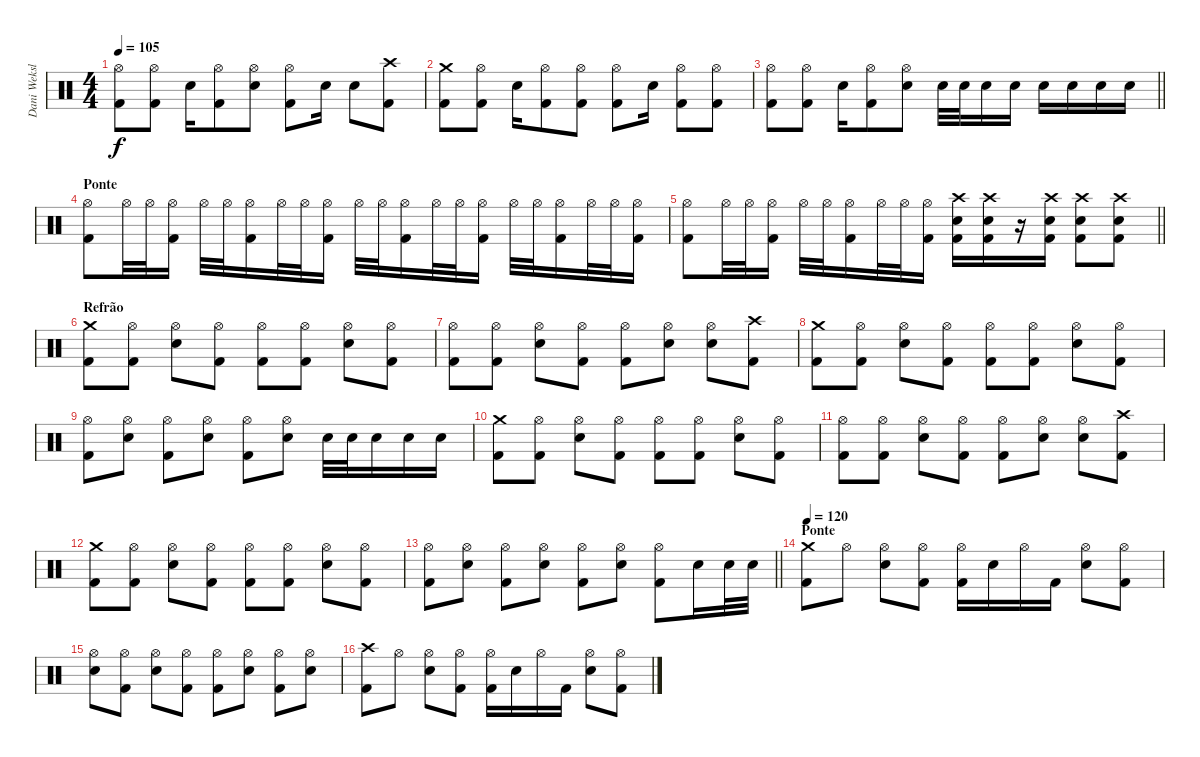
\track ("Dani Weksler" "Dani Weksl") {instrument percussion}
\staff {score}
\articulation defaults
\ts (4 4)
\tempo 105
\clef neutral
\ks c
("Hi-Hat (open)" "Kick (hit) 2").8{dy f} ("Hi-Hat (open)" "Kick (hit) 2").8 "Electric Snare (hit)".16 ("Hi-Hat (open)" "Kick (hit) 2").8 ("Hi-Hat (open)" "Electric Snare (hit)").8 ("Hi-Hat (open)" "Kick (hit) 2").8 "Electric Snare (hit)".16 "Electric Snare (hit)".8 ("Crash high (hit)" "Kick (hit) 2").8 |
("Crash medium (hit)" "Kick (hit) 2").8 ("Hi-Hat (open)" "Kick (hit) 2").8 "Electric Snare (hit)".16 ("Hi-Hat (open)" "Kick (hit) 2").8 ("Hi-Hat (open)" "Kick (hit) 2").8 ("Hi-Hat (open)" "Kick (hit) 2").8 "Electric Snare (hit)".16 ("Hi-Hat (open)" "Kick (hit) 2").8 ("Hi-Hat (open)" "Kick (hit) 2").8 |
\barLineRight lightlight
("Hi-Hat (open)" "Kick (hit) 2").8 ("Hi-Hat (open)" "Kick (hit) 2").8 "Electric Snare (hit)".16 ("Hi-Hat (open)" "Kick (hit) 2").8 ("Hi-Hat (open)" "Electric Snare (hit)").8 "Electric Snare (hit)".32 "Electric Snare (hit)".32 "Electric Snare (hit)".16 "Electric Snare (hit)".16 "Electric Snare (hit)".16 "Electric Snare (hit)".16 "Electric Snare (hit)".16 "Electric Snare (hit)".16 |
\section ("" "Ponte")
("Hi-Hat (open)" "Kick (hit) 2").8 "Hi-Hat (open)".32 "Hi-Hat (open)".32 ("Hi-Hat (open)" "Kick (hit) 2").16 "Hi-Hat (open)".32 "Hi-Hat (open)".32 ("Hi-Hat (open)" "Kick (hit) 2").16 "Hi-Hat (open)".32 "Hi-Hat (open)".32 ("Hi-Hat (open)" "Kick (hit) 2").16 "Hi-Hat (open)".32 "Hi-Hat (open)".32 ("Hi-Hat (open)" "Kick (hit) 2").16 "Hi-Hat (open)".32 "Hi-Hat (open)".32 ("Hi-Hat (open)" "Kick (hit) 2").16 "Hi-Hat (open)".32 "Hi-Hat (open)".32 ("Hi-Hat (open)" "Kick (hit) 2").16 "Hi-Hat (open)".32 "Hi-Hat (open)".32 ("Hi-Hat (open)" "Kick (hit) 2").16 |
\barLineRight lightlight
("Hi-Hat (open)" "Kick (hit) 2").8 "Hi-Hat (open)".32 "Hi-Hat (open)".32 ("Hi-Hat (open)" "Kick (hit) 2").16 "Hi-Hat (open)".32 "Hi-Hat (open)".32 ("Hi-Hat (open)" "Kick (hit) 2").16 "Hi-Hat (open)".32 "Hi-Hat (open)".32 ("Hi-Hat (open)" "Kick (hit) 2").16 ("Crash high (hit)" "Electric Snare (hit)" "Kick (hit) 2").16 ("Crash high (hit)" "Electric Snare (hit)" "Kick (hit) 2").16 r.16 ("Crash high (hit)" "Electric Snare (hit)" "Kick (hit) 2").16 ("Crash high (hit)" "Electric Snare (hit)" "Kick (hit) 2").8 ("Crash high (hit)" "Electric Snare (hit)" "Kick (hit) 2").8 |
\section ("" "Refrão")
("Crash medium (hit)" "Kick (hit) 2").8 ("Hi-Hat (open)" "Kick (hit) 2").8 ("Hi-Hat (open)" "Electric Snare (hit)").8 ("Hi-Hat (open)" "Kick (hit) 2").8 ("Hi-Hat (open)" "Kick (hit) 2").8 ("Hi-Hat (open)" "Kick (hit) 2").8 ("Hi-Hat (open)" "Electric Snare (hit)").8 ("Hi-Hat (open)" "Kick (hit) 2").8 |
("Hi-Hat (open)" "Kick (hit) 2").8 ("Hi-Hat (open)" "Kick (hit) 2").8 ("Hi-Hat (open)" "Electric Snare (hit)").8 ("Hi-Hat (open)" "Kick (hit) 2").8 ("Hi-Hat (open)" "Kick (hit) 2").8 ("Hi-Hat (open)" "Electric Snare (hit)").8 ("Hi-Hat (open)" "Electric Snare (hit)").8 ("Crash high (hit)" "Kick (hit) 2").8 |
("Crash medium (hit)" "Kick (hit) 2").8 ("Hi-Hat (open)" "Kick (hit) 2").8 ("Hi-Hat (open)" "Electric Snare (hit)").8 ("Hi-Hat (open)" "Kick (hit) 2").8 ("Hi-Hat (open)" "Kick (hit) 2").8 ("Hi-Hat (open)" "Kick (hit) 2").8 ("Hi-Hat (open)" "Electric Snare (hit)").8 ("Hi-Hat (open)" "Kick (hit) 2").8 |
("Hi-Hat (open)" "Kick (hit) 2").8 ("Hi-Hat (open)" "Electric Snare (hit)").8 ("Hi-Hat (open)" "Kick (hit) 2").8 ("Hi-Hat (open)" "Electric Snare (hit)").8 ("Hi-Hat (open)" "Kick (hit) 2").8 ("Hi-Hat (open)" "Electric Snare (hit)").8 "Electric Snare (hit)".32 "Electric Snare (hit)".32 "Electric Snare (hit)".16 "Electric Snare (hit)".16 "Electric Snare (hit)".16 |
("Crash medium (hit)" "Kick (hit) 2").8 ("Hi-Hat (open)" "Kick (hit) 2").8 ("Hi-Hat (open)" "Electric Snare (hit)").8 ("Hi-Hat (open)" "Kick (hit) 2").8 ("Hi-Hat (open)" "Kick (hit) 2").8 ("Hi-Hat (open)" "Kick (hit) 2").8 ("Hi-Hat (open)" "Electric Snare (hit)").8 ("Hi-Hat (open)" "Kick (hit) 2").8 |
("Hi-Hat (open)" "Kick (hit) 2").8 ("Hi-Hat (open)" "Kick (hit) 2").8 ("Hi-Hat (open)" "Electric Snare (hit)").8 ("Hi-Hat (open)" "Kick (hit) 2").8 ("Hi-Hat (open)" "Kick (hit) 2").8 ("Hi-Hat (open)" "Electric Snare (hit)").8 ("Hi-Hat (open)" "Electric Snare (hit)").8 ("Crash high (hit)" "Kick (hit) 2").8 |
("Crash medium (hit)" "Kick (hit) 2").8 ("Hi-Hat (open)" "Kick (hit) 2").8 ("Hi-Hat (open)" "Electric Snare (hit)").8 ("Hi-Hat (open)" "Kick (hit) 2").8 ("Hi-Hat (open)" "Kick (hit) 2").8 ("Hi-Hat (open)" "Kick (hit) 2").8 ("Hi-Hat (open)" "Electric Snare (hit)").8 ("Hi-Hat (open)" "Kick (hit) 2").8 |
\barLineRight lightlight
("Hi-Hat (open)" "Kick (hit) 2").8 ("Hi-Hat (open)" "Electric Snare (hit)").8 ("Hi-Hat (open)" "Kick (hit) 2").8 ("Hi-Hat (open)" "Electric Snare (hit)").8 ("Hi-Hat (open)" "Kick (hit) 2").8 ("Hi-Hat (open)" "Electric Snare (hit)").8 ("Hi-Hat (open)" "Kick (hit) 2").8 "Electric Snare (hit)".16 "Electric Snare (hit)".32 "Electric Snare (hit)".32 |
\section ("" "Ponte")
\tempo 120
("Crash medium (hit)" "Kick (hit) 2").8 "Hi-Hat (open)".8 ("Hi-Hat (open)" "Electric Snare (hit)").8 ("Hi-Hat (open)" "Kick (hit) 2").8 ("Hi-Hat (open)" "Kick (hit) 2").16 "Electric Snare (hit)".16 "Hi-Hat (open)".16 "Kick (hit) 2".16 ("Hi-Hat (open)" "Electric Snare (hit)").8 ("Hi-Hat (open)" "Kick (hit) 2").8 |
("Hi-Hat (open)" "Electric Snare (hit)").8 ("Hi-Hat (open)" "Kick (hit) 2").8 ("Hi-Hat (open)" "Electric Snare (hit)").8 ("Hi-Hat (open)" "Kick (hit) 2").8 ("Hi-Hat (open)" "Kick (hit) 2").8 ("Hi-Hat (open)" "Electric Snare (hit)").8 ("Hi-Hat (open)" "Kick (hit) 2").8 ("Hi-Hat (open)" "Electric Snare (hit)").8 |
("Crash high (hit)" "Kick (hit) 2").8 "Hi-Hat (open)".8 ("Hi-Hat (open)" "Electric Snare (hit)").8 ("Hi-Hat (open)" "Kick (hit) 2").8 ("Hi-Hat (open)" "Kick (hit) 2").16 "Electric Snare (hit)".16 "Hi-Hat (open)".16 "Kick (hit) 2".16 ("Hi-Hat (open)" "Electric Snare (hit)").8 ("Hi-Hat (open)" "Kick (hit) 2").8
